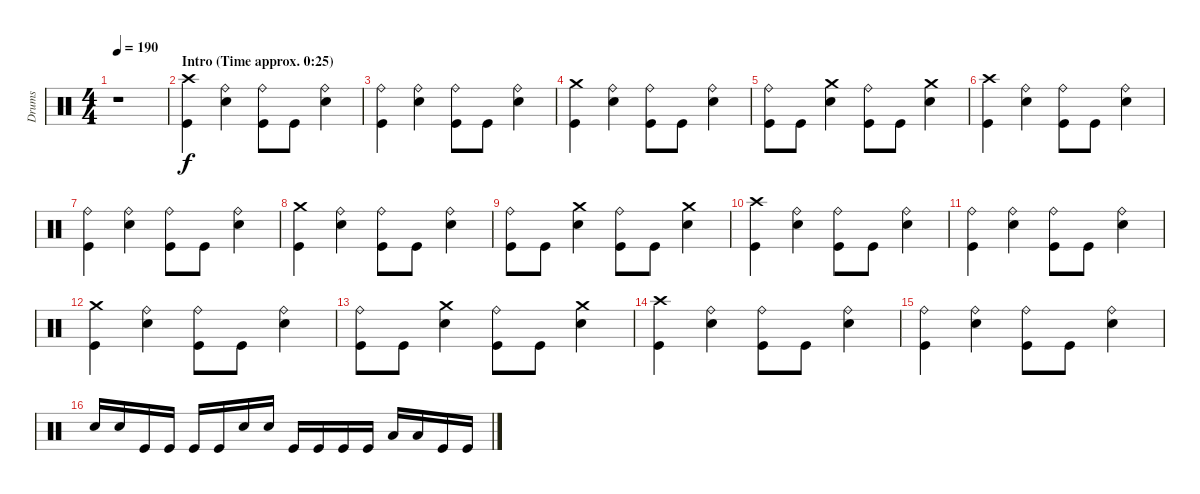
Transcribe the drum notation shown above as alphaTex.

\track ("Drums" "Drums") {instrument percussion}
\staff {score}
\articulation defaults
\ts (4 4)
\tempo 190
\clef neutral
\ks c
r.1{dy f} |
\section ("" "Intro (Time approx. 0:25)")
("Crash high (hit)" "Kick (hit)").4 ("Ride (bell)" "Electric Snare (hit)").4 ("Ride (bell)" "Kick (hit)").8 "Kick (hit)".8 ("Ride (bell)" "Electric Snare (hit)").4 |
("Ride (bell)" "Kick (hit)").4 ("Ride (bell)" "Electric Snare (hit)").4 ("Ride (bell)" "Kick (hit)").8 "Kick (hit)".8 ("Ride (bell)" "Electric Snare (hit)").4 |
("Crash medium (hit)" "Kick (hit)").4 ("Ride (bell)" "Electric Snare (hit)").4 ("Ride (bell)" "Kick (hit)").8 "Kick (hit)".8 ("Ride (bell)" "Electric Snare (hit)").4 |
("Ride (bell)" "Kick (hit)").8 "Kick (hit)".8 ("Crash medium (hit)" "Electric Snare (hit)").4 ("Ride (bell)" "Kick (hit)").8 "Kick (hit)".8 ("Crash medium (hit)" "Electric Snare (hit)").4 |
("Crash high (hit)" "Kick (hit)").4 ("Ride (bell)" "Electric Snare (hit)").4 ("Ride (bell)" "Kick (hit)").8 "Kick (hit)".8 ("Ride (bell)" "Electric Snare (hit)").4 |
("Ride (bell)" "Kick (hit)").4 ("Ride (bell)" "Electric Snare (hit)").4 ("Ride (bell)" "Kick (hit)").8 "Kick (hit)".8 ("Ride (bell)" "Electric Snare (hit)").4 |
("Crash medium (hit)" "Kick (hit)").4 ("Ride (bell)" "Electric Snare (hit)").4 ("Ride (bell)" "Kick (hit)").8 "Kick (hit)".8 ("Ride (bell)" "Electric Snare (hit)").4 |
("Ride (bell)" "Kick (hit)").8 "Kick (hit)".8 ("Crash medium (hit)" "Electric Snare (hit)").4 ("Ride (bell)" "Kick (hit)").8 "Kick (hit)".8 ("Crash medium (hit)" "Electric Snare (hit)").4 |
("Crash high (hit)" "Kick (hit)").4 ("Ride (bell)" "Electric Snare (hit)").4 ("Ride (bell)" "Kick (hit)").8 "Kick (hit)".8 ("Ride (bell)" "Electric Snare (hit)").4 |
("Ride (bell)" "Kick (hit)").4 ("Ride (bell)" "Electric Snare (hit)").4 ("Ride (bell)" "Kick (hit)").8 "Kick (hit)".8 ("Ride (bell)" "Electric Snare (hit)").4 |
("Crash medium (hit)" "Kick (hit)").4 ("Ride (bell)" "Electric Snare (hit)").4 ("Ride (bell)" "Kick (hit)").8 "Kick (hit)".8 ("Ride (bell)" "Electric Snare (hit)").4 |
("Ride (bell)" "Kick (hit)").8 "Kick (hit)".8 ("Crash medium (hit)" "Electric Snare (hit)").4 ("Ride (bell)" "Kick (hit)").8 "Kick (hit)".8 ("Crash medium (hit)" "Electric Snare (hit)").4 |
("Crash high (hit)" "Kick (hit)").4 ("Ride (bell)" "Electric Snare (hit)").4 ("Ride (bell)" "Kick (hit)").8 "Kick (hit)".8 ("Ride (bell)" "Electric Snare (hit)").4 |
("Ride (bell)" "Kick (hit)").4 ("Ride (bell)" "Electric Snare (hit)").4 ("Ride (bell)" "Kick (hit)").8 "Kick (hit)".8 ("Ride (bell)" "Electric Snare (hit)").4 |
"Electric Snare (hit)".16 "Electric Snare (hit)".16 "Kick (hit)".16 "Kick (hit)".16 "Kick (hit)".16 "Kick (hit)".16 "Electric Snare (hit)".16 "Electric Snare (hit)".16 "Kick (hit)".16 "Kick (hit)".16 "Kick (hit)".16 "Kick (hit)".16 "Low Tom (hit)".16 "Low Tom (hit)".16 "Kick (hit)".16 "Kick (hit)".16
